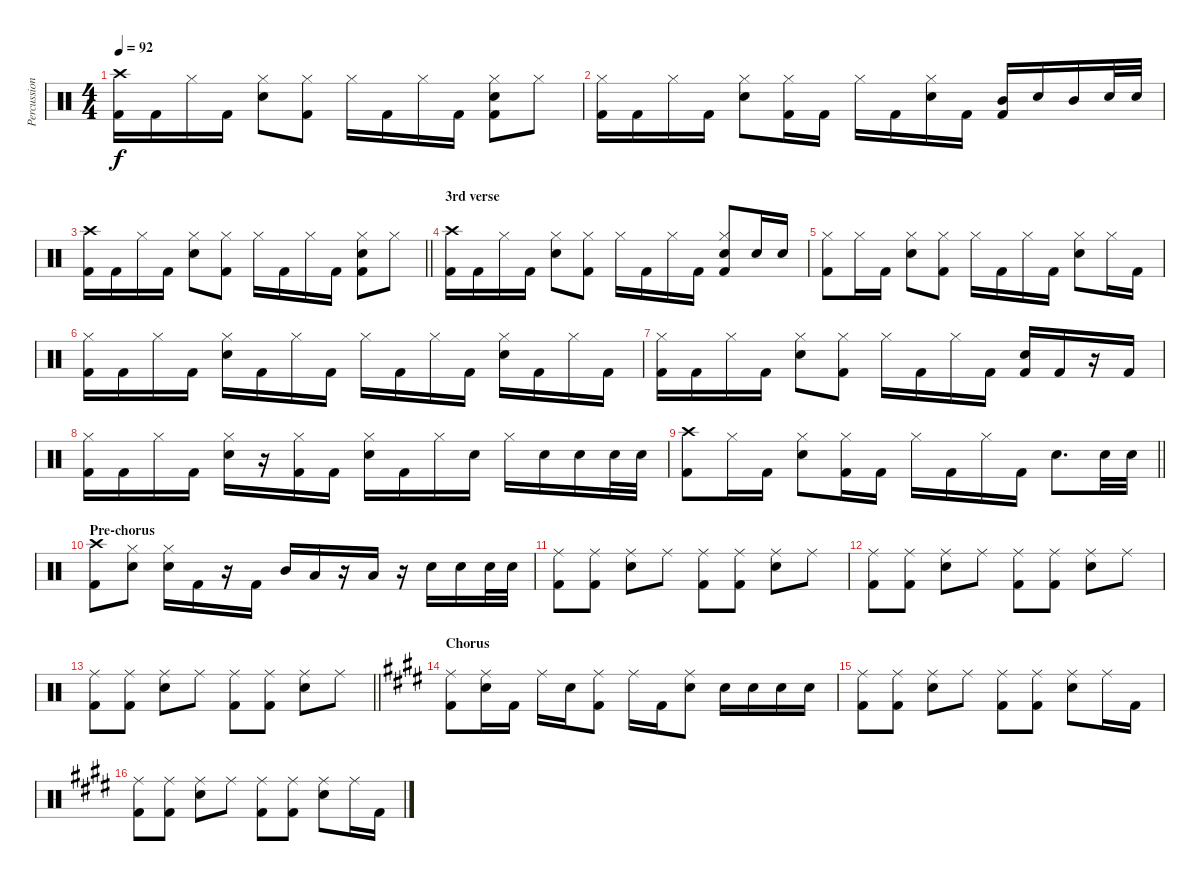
\track ("Percussion" "Percussion") {instrument percussion}
\staff {score}
\articulation defaults
\ts (4 4)
\tempo 92
\clef neutral
\ks c
("Crash high (hit)" "Kick (hit) 2").16{dy f} "Kick (hit) 2".16 "Hi-Hat (closed)".16 "Kick (hit) 2".16 ("Hi-Hat (closed)" "Electric Snare (hit)").8 ("Hi-Hat (closed)" "Kick (hit) 2").8 "Hi-Hat (closed)".16 "Kick (hit) 2".16 "Hi-Hat (closed)".16 "Kick (hit) 2".16 ("Hi-Hat (closed)" "Electric Snare (hit)" "Kick (hit) 2").8 "Hi-Hat (closed)".8 |
("Hi-Hat (closed)" "Kick (hit) 2").16 "Kick (hit) 2".16 "Hi-Hat (closed)".16 "Kick (hit) 2".16 ("Hi-Hat (closed)" "Electric Snare (hit)").8 ("Hi-Hat (closed)" "Kick (hit) 2").16 "Kick (hit) 2".16 "Hi-Hat (closed)".16 "Kick (hit) 2".16 ("Hi-Hat (closed)" "Electric Snare (hit)").16 "Kick (hit) 2".16 ("Mid Tom (hit)" "Kick (hit) 2").16 "Electric Snare (hit)".16 "Mid Tom (hit)".16 "Electric Snare (hit)".32 "Electric Snare (hit)".32 |
\barLineRight lightlight
("Crash high (hit)" "Kick (hit) 2").16 "Kick (hit) 2".16 "Hi-Hat (closed)".16 "Kick (hit) 2".16 ("Hi-Hat (closed)" "Electric Snare (hit)").8 ("Hi-Hat (closed)" "Kick (hit) 2").8 "Hi-Hat (closed)".16 "Kick (hit) 2".16 "Hi-Hat (closed)".16 "Kick (hit) 2".16 ("Hi-Hat (closed)" "Electric Snare (hit)" "Kick (hit) 2").8 "Hi-Hat (closed)".8 |
\section ("" "3rd verse")
("Crash high (hit)" "Kick (hit) 2").16 "Kick (hit) 2".16 "Hi-Hat (closed)".16 "Kick (hit) 2".16 ("Hi-Hat (closed)" "Electric Snare (hit)").8 ("Hi-Hat (closed)" "Kick (hit) 2").8 "Hi-Hat (closed)".16 "Kick (hit) 2".16 "Hi-Hat (closed)".16 "Kick (hit) 2".16 ("Hi-Hat (closed)" "Electric Snare (hit)" "Kick (hit) 2").8 "Electric Snare (hit)".16 "Electric Snare (hit)".16 |
("Hi-Hat (closed)" "Kick (hit) 2").8 "Hi-Hat (closed)".16 "Kick (hit) 2".16 ("Hi-Hat (closed)" "Electric Snare (hit)").8 ("Hi-Hat (closed)" "Kick (hit) 2").8 "Hi-Hat (closed)".16 "Kick (hit) 2".16 "Hi-Hat (closed)".16 "Kick (hit) 2".16 ("Hi-Hat (closed)" "Electric Snare (hit)").8 "Hi-Hat (closed)".16 "Kick (hit) 2".16 |
("Hi-Hat (closed)" "Kick (hit) 2").16 "Kick (hit) 2".16 "Hi-Hat (closed)".16 "Kick (hit) 2".16 ("Hi-Hat (closed)" "Electric Snare (hit)").16 "Kick (hit) 2".16 "Hi-Hat (closed)".16 "Kick (hit) 2".16 "Hi-Hat (closed)".16 "Kick (hit) 2".16 "Hi-Hat (closed)".16 "Kick (hit) 2".16 ("Hi-Hat (closed)" "Electric Snare (hit)").16 "Kick (hit) 2".16 "Hi-Hat (closed)".16 "Kick (hit) 2".16 |
("Hi-Hat (closed)" "Kick (hit) 2").16 "Kick (hit) 2".16 "Hi-Hat (closed)".16 "Kick (hit) 2".16 ("Hi-Hat (closed)" "Electric Snare (hit)").8 ("Hi-Hat (closed)" "Kick (hit) 2").8 "Hi-Hat (closed)".16 "Kick (hit) 2".16 "Hi-Hat (closed)".16 "Kick (hit) 2".16 ("Electric Snare (hit)" "Kick (hit) 2").16 "Kick (hit) 2".16 r.16 "Kick (hit) 2".16 |
("Hi-Hat (closed)" "Kick (hit) 2").16 "Kick (hit) 2".16 "Hi-Hat (closed)".16 "Kick (hit) 2".16 ("Hi-Hat (closed)" "Electric Snare (hit)").16 r.16 ("Hi-Hat (closed)" "Kick (hit) 2").16 "Kick (hit) 2".16 ("Hi-Hat (closed)" "Electric Snare (hit)").16 "Kick (hit) 2".16 "Hi-Hat (closed)".16 "Electric Snare (hit)".16 "Hi-Hat (closed)".16 "Electric Snare (hit)".16 "Electric Snare (hit)".16 "Electric Snare (hit)".32 "Electric Snare (hit)".32 |
\barLineRight lightlight
("Crash high (hit)" "Kick (hit) 2").8 "Hi-Hat (closed)".16 "Kick (hit) 2".16 ("Hi-Hat (closed)" "Electric Snare (hit)").8 ("Hi-Hat (closed)" "Kick (hit) 2").16 "Kick (hit) 2".16 "Hi-Hat (closed)".16 "Kick (hit) 2".16 "Hi-Hat (closed)".16 "Kick (hit) 2".16 "Electric Snare (hit)".8{d} "Electric Snare (hit)".32 "Electric Snare (hit)".32 |
\section ("" "Pre-chorus")
("Crash high (hit)" "Kick (hit) 2").8 ("Hi-Hat (closed)" "Electric Snare (hit)").8 ("Hi-Hat (closed)" "Electric Snare (hit)").16 "Kick (hit) 2".16 r.16 "Kick (hit) 2".16 "Mid Tom (hit)".16 "Low Tom (hit)".16 r.16 "Low Tom (hit)".16 r.16 "Electric Snare (hit)".16 "Electric Snare (hit)".16 "Electric Snare (hit)".32 "Electric Snare (hit)".32 |
("Ride (middle)" "Kick (hit) 2").8 ("Ride (middle)" "Kick (hit) 2").8 ("Ride (middle)" "Electric Snare (hit)").8 "Ride (middle)".8 ("Ride (middle)" "Kick (hit) 2").8 ("Ride (middle)" "Kick (hit) 2").8 ("Ride (middle)" "Electric Snare (hit)").8 "Ride (middle)".8 |
("Ride (middle)" "Kick (hit) 2").8 ("Ride (middle)" "Kick (hit) 2").8 ("Ride (middle)" "Electric Snare (hit)").8 "Ride (middle)".8 ("Ride (middle)" "Kick (hit) 2").8 ("Ride (middle)" "Kick (hit) 2").8 ("Ride (middle)" "Electric Snare (hit)").8 "Ride (middle)".8 |
\barLineRight lightlight
("Ride (middle)" "Kick (hit) 2").8 ("Ride (middle)" "Kick (hit) 2").8 ("Ride (middle)" "Electric Snare (hit)").8 "Ride (middle)".8 ("Ride (middle)" "Kick (hit) 2").8 ("Ride (middle)" "Kick (hit) 2").8 ("Ride (middle)" "Electric Snare (hit)").8 "Ride (middle)".8 |
\section ("" "Chorus")
\ks e
("Ride (middle)" "Kick (hit) 2").8 ("Ride (middle)" "Electric Snare (hit)").16 "Kick (hit) 2".16 "Ride (middle)".16 "Electric Snare (hit)".16 ("Ride (middle)" "Kick (hit) 2").8 "Ride (middle)".16 "Kick (hit) 2".16 ("Ride (middle)" "Electric Snare (hit)").8 "Electric Snare (hit)".16 "Electric Snare (hit)".16 "Electric Snare (hit)".16 "Electric Snare (hit)".16 |
("Ride (middle)" "Kick (hit) 2").8 ("Ride (middle)" "Kick (hit) 2").8 ("Ride (middle)" "Electric Snare (hit)").8 "Ride (middle)".8 ("Ride (middle)" "Kick (hit) 2").8 ("Ride (middle)" "Kick (hit) 2").8 ("Ride (middle)" "Electric Snare (hit)").8 "Ride (middle)".16 "Kick (hit) 2".16 |
("Ride (middle)" "Kick (hit) 2").8 ("Ride (middle)" "Kick (hit) 2").8 ("Ride (middle)" "Electric Snare (hit)").8 "Ride (middle)".8 ("Ride (middle)" "Kick (hit) 2").8 ("Ride (middle)" "Kick (hit) 2").8 ("Ride (middle)" "Electric Snare (hit)").8 "Ride (middle)".16 "Kick (hit) 2".16
